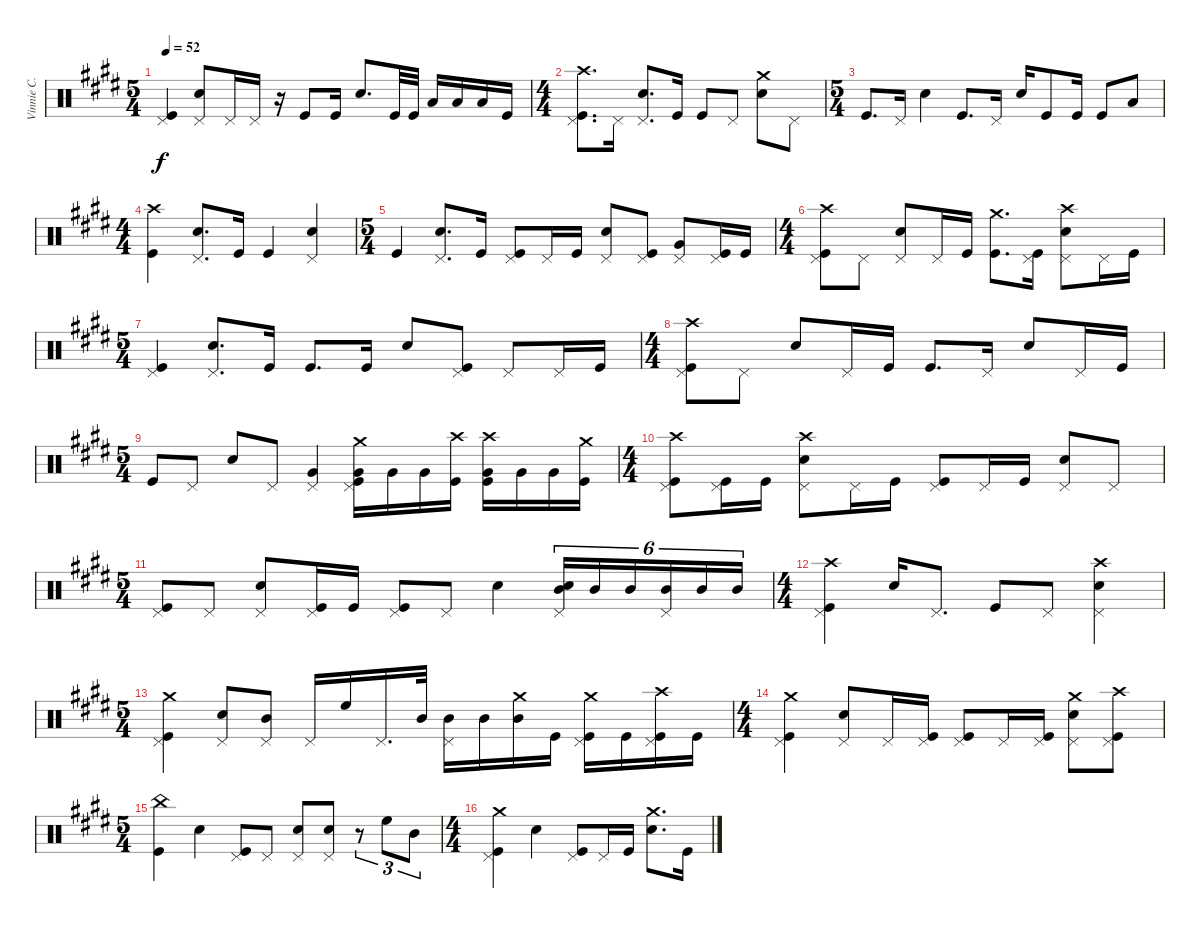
\track ("Vinnie C." "Vinnie C.") {instrument percussion}
\staff {score}
\articulation defaults
\ts (5 4)
\tempo 52
\clef neutral
\ks e
("Pedal Hi-Hat (hit)" "Kick (hit)").4{dy f} ("Pedal Hi-Hat (hit)" "Electric Snare (hit)").8 "Pedal Hi-Hat (hit)".16 "Pedal Hi-Hat (hit)".16 r.16 "Kick (hit)".8 "Kick (hit)".16 "Electric Snare (hit)".8{d} "Kick (hit)".32 "Kick (hit)".32 "Low Tom (hit)".16 "Low Tom (hit)".16 "Low Tom (hit)".16 "Kick (hit)".16 |
\ts (4 4)
("Crash high (hit)" "Pedal Hi-Hat (hit)" "Kick (hit)").8{d} "Pedal Hi-Hat (hit)".16 ("Pedal Hi-Hat (hit)" "Electric Snare (hit)").8{d} "Kick (hit)".16 "Kick (hit)".8 "Pedal Hi-Hat (hit)".8 ("Crash medium (hit)" "Electric Snare (hit)").8 "Pedal Hi-Hat (hit)".8 |
\ts (5 4)
"Kick (hit)".8{d} "Pedal Hi-Hat (hit)".16 "Electric Snare (hit)".4 "Kick (hit)".8{d} "Pedal Hi-Hat (hit)".16 "Electric Snare (hit)".16 "Kick (hit)".8 "Kick (hit)".16 "Kick (hit)".8 "Low Tom (hit)".8 |
\ts (4 4)
("Crash high (hit)" "Kick (hit)").4 ("Pedal Hi-Hat (hit)" "Electric Snare (hit)").8{d} "Kick (hit)".16 "Kick (hit)".4 ("Pedal Hi-Hat (hit)" "Electric Snare (hit)").4 |
\ts (5 4)
"Kick (hit)".4 ("Pedal Hi-Hat (hit)" "Electric Snare (hit)").8{d} "Kick (hit)".16 ("Pedal Hi-Hat (hit)" "Kick (hit)").8 "Pedal Hi-Hat (hit)".16 "Kick (hit)".16 ("Pedal Hi-Hat (hit)" "Electric Snare (hit)").8 ("Pedal Hi-Hat (hit)" "Kick (hit)").8 ("Pedal Hi-Hat (hit)" "Very Low Tom (hit)").8 ("Pedal Hi-Hat (hit)" "Kick (hit)").16 "Kick (hit)".16 |
\ts (4 4)
("Crash high (hit)" "Pedal Hi-Hat (hit)" "Kick (hit)").8 "Pedal Hi-Hat (hit)".8 ("Pedal Hi-Hat (hit)" "Electric Snare (hit)").8 "Pedal Hi-Hat (hit)".16 "Kick (hit)".16 ("Crash medium (hit)" "Kick (hit)").8{d} ("Pedal Hi-Hat (hit)" "Kick (hit)").16 ("Pedal Hi-Hat (hit)" "Crash high (hit)" "Electric Snare (hit)").8 "Pedal Hi-Hat (hit)".16 "Kick (hit)".16 |
\ts (5 4)
("Pedal Hi-Hat (hit)" "Kick (hit)").4 ("Pedal Hi-Hat (hit)" "Electric Snare (hit)").8{d} "Kick (hit)".16 "Kick (hit)".8{d} "Kick (hit)".16 "Electric Snare (hit)".8 ("Pedal Hi-Hat (hit)" "Kick (hit)").8 "Pedal Hi-Hat (hit)".8 "Pedal Hi-Hat (hit)".16 "Kick (hit)".16 |
\ts (4 4)
("Crash high (hit)" "Pedal Hi-Hat (hit)" "Kick (hit)").8 "Pedal Hi-Hat (hit)".8 "Electric Snare (hit)".8 "Pedal Hi-Hat (hit)".16 "Kick (hit)".16 "Kick (hit)".8{d} "Pedal Hi-Hat (hit)".16 "Electric Snare (hit)".8 "Pedal Hi-Hat (hit)".16 "Kick (hit)".16 |
\ts (5 4)
"Kick (hit)".8 "Pedal Hi-Hat (hit)".8 "Electric Snare (hit)".8 "Pedal Hi-Hat (hit)".8 ("Pedal Hi-Hat (hit)" "Very Low Tom (hit)").4 ("Crash medium (hit)" "Pedal Hi-Hat (hit)" "Very Low Tom (hit)" "Kick (hit)").16 "Very Low Tom (hit)".16 "Very Low Tom (hit)".16 ("Crash high (hit)" "Kick (hit)").16 ("Crash high (hit)" "Very Low Tom (hit)" "Kick (hit)").16 "Very Low Tom (hit)".16 "Very Low Tom (hit)".16 ("Crash medium (hit)" "Kick (hit)").16 |
\ts (4 4)
("Crash high (hit)" "Pedal Hi-Hat (hit)" "Kick (hit)").8 ("Pedal Hi-Hat (hit)" "Kick (hit)").16 "Kick (hit)".16 ("Crash high (hit)" "Pedal Hi-Hat (hit)" "Electric Snare (hit)").8 "Pedal Hi-Hat (hit)".16 "Kick (hit)".16 ("Pedal Hi-Hat (hit)" "Kick (hit)").8 "Pedal Hi-Hat (hit)".16 "Kick (hit)".16 ("Pedal Hi-Hat (hit)" "Electric Snare (hit)").8 "Pedal Hi-Hat (hit)".8 |
\ts (5 4)
("Pedal Hi-Hat (hit)" "Kick (hit)").8 "Pedal Hi-Hat (hit)".8 ("Pedal Hi-Hat (hit)" "Electric Snare (hit)").8 ("Pedal Hi-Hat (hit)" "Kick (hit)").16 "Kick (hit)".16 ("Pedal Hi-Hat (hit)" "Kick (hit)").8 "Pedal Hi-Hat (hit)".8 "Electric Snare (hit)".4 ("Pedal Hi-Hat (hit)" "Mid Tom (hit)" "Electric Snare (hit)").16{tu (6 4)} "Mid Tom (hit)".16{tu (6 4)} "Mid Tom (hit)".16{tu (6 4)} ("Pedal Hi-Hat (hit)" "Mid Tom (hit)").16{tu (6 4)} "Mid Tom (hit)".16{tu (6 4)} "Mid Tom (hit)".16{tu (6 4)} |
\ts (4 4)
("Crash high (hit)" "Pedal Hi-Hat (hit)" "Kick (hit)").4 "Electric Snare (hit)".16 "Pedal Hi-Hat (hit)".8{d} "Kick (hit)".8 "Pedal Hi-Hat (hit)".8 ("Crash high (hit)" "Pedal Hi-Hat (hit)" "Electric Snare (hit)").4 |
\ts (5 4)
("Crash medium (hit)" "Pedal Hi-Hat (hit)" "Kick (hit)").4 ("Pedal Hi-Hat (hit)" "Electric Snare (hit)").8 ("Pedal Hi-Hat (hit)" "Mid Tom (hit)").8 "Pedal Hi-Hat (hit)".16 "High Floor Tom (hit)".16 "Pedal Hi-Hat (hit)".16{d} "Mid Tom (hit)".32 ("Pedal Hi-Hat (hit)" "Mid Tom (hit)").16 "Mid Tom (hit)".16 ("Crash medium (hit)" "Mid Tom (hit)").16 "Kick (hit)".16 ("Crash medium (hit)" "Pedal Hi-Hat (hit)" "Kick (hit)").16 "Kick (hit)".16 ("Crash high (hit)" "Pedal Hi-Hat (hit)" "Kick (hit)").16 "Kick (hit)".16 |
\ts (4 4)
("Crash medium (hit)" "Pedal Hi-Hat (hit)" "Kick (hit)").4 ("Pedal Hi-Hat (hit)" "Electric Snare (hit)").8 "Pedal Hi-Hat (hit)".16 ("Pedal Hi-Hat (hit)" "Kick (hit)").16 ("Pedal Hi-Hat (hit)" "Kick (hit)").8 "Pedal Hi-Hat (hit)".16 ("Pedal Hi-Hat (hit)" "Kick (hit)").16 ("Crash medium (hit)" "Pedal Hi-Hat (hit)" "Electric Snare (hit)").8 ("Crash high (hit)" "Pedal Hi-Hat (hit)" "Kick (hit)").8 |
\ts (5 4)
("China (hit)" "Kick (hit)").4 "Electric Snare (hit)".4 ("Pedal Hi-Hat (hit)" "Kick (hit)").8 "Pedal Hi-Hat (hit)".8 ("Pedal Hi-Hat (hit)" "Electric Snare (hit)").8 ("Pedal Hi-Hat (hit)" "Electric Snare (hit)").8 r.8{tu (3 2)} "High Floor Tom (hit)".8{tu (3 2)} "Mid Tom (hit)".8{tu (3 2)} |
\ts (4 4)
("Crash medium (hit)" "Pedal Hi-Hat (hit)" "Kick (hit)").4 "Electric Snare (hit)".4 ("Pedal Hi-Hat (hit)" "Kick (hit)").8 "Pedal Hi-Hat (hit)".16 "Kick (hit)".16 ("Crash medium (hit)" "Electric Snare (hit)").8{d} "Kick (hit)".16
